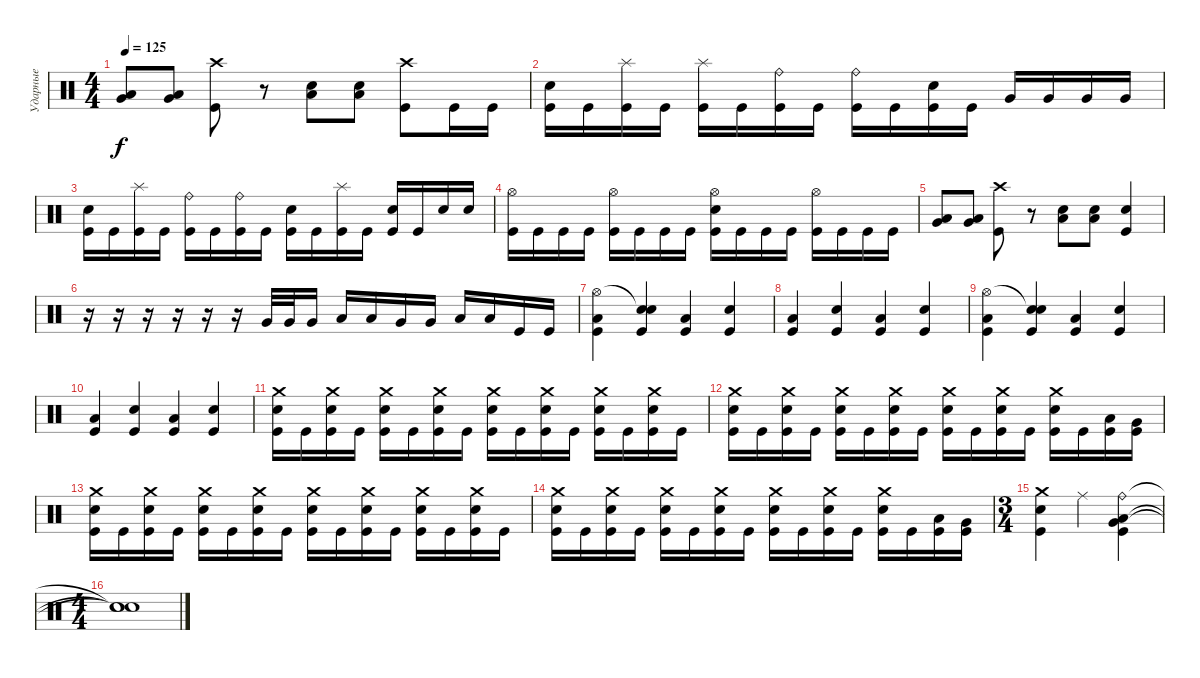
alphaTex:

\track ("Ударные" "Ударные") {instrument percussion}
\staff {score}
\articulation defaults
\ts (4 4)
\tempo 125
\clef neutral
\ks c
("Low Tom (hit)" "Very Low Tom (hit)").8{dy f} ("Low Tom (hit)" "Very Low Tom (hit)").8 ("Crash high (hit)" "Kick (hit)").8 r.8 ("Electric Snare (hit)" "Low Floor Tom (hit)").8 ("Electric Snare (hit)" "Low Floor Tom (hit)").8 ("Crash high (hit)" "Kick (hit)").8 "Kick (hit)".16 "Kick (hit)".16 |
("Electric Snare (hit)" "Kick (hit)").16 "Kick (hit)".16 ("Splash (hit)" "Kick (hit)").16 "Kick (hit)".16 ("Splash (hit)" "Kick (hit)").16 "Kick (hit)".16 ("Ride (bell)" "Kick (hit)").16 "Kick (hit)".16 ("Ride (bell)" "Kick (hit)").16 "Kick (hit)".16 ("Electric Snare (hit)" "Kick (hit)").16 "Kick (hit)".16 "Very Low Tom (hit)".16 "Very Low Tom (hit)".16 "Very Low Tom (hit)".16 "Very Low Tom (hit)".16 |
("Electric Snare (hit)" "Kick (hit)").16 "Kick (hit)".16 ("Splash (hit)" "Kick (hit)").16 "Kick (hit)".16 ("Ride (bell)" "Kick (hit)").16 "Kick (hit)".16 ("Ride (bell)" "Kick (hit)").16 "Kick (hit)".16 ("Electric Snare (hit)" "Kick (hit)").16 "Kick (hit)".16 ("Splash (hit)" "Kick (hit)").16 "Kick (hit)".16 ("Electric Snare (hit)" "Kick (hit)").16 "Kick (hit)".16 "Electric Snare (hit)".16 "Electric Snare (hit)".16 |
("Hi-Hat (open)" "Kick (hit)").16 "Kick (hit)".16 "Kick (hit)".16 "Kick (hit)".16 ("Hi-Hat (open)" "Kick (hit)").16 "Kick (hit)".16 "Kick (hit)".16 "Kick (hit)".16 ("Hi-Hat (open)" "Electric Snare (hit)" "Kick (hit)").16 "Kick (hit)".16 "Kick (hit)".16 "Kick (hit)".16 ("Hi-Hat (open)" "Kick (hit)").16 "Kick (hit)".16 "Kick (hit)".16 "Kick (hit)".16 |
("Low Tom (hit)" "Very Low Tom (hit)").8 ("Low Tom (hit)" "Very Low Tom (hit)").8 ("Crash high (hit)" "Kick (hit)").8 r.8 ("Electric Snare (hit)" "Low Floor Tom (hit)").8 ("Electric Snare (hit)" "Low Floor Tom (hit)").8 ("Electric Snare (hit)" "Kick (hit)").4 |
r.16 r.16 r.16 r.16 r.16 r.16 "Very Low Tom (hit)".32 "Very Low Tom (hit)".32 "Very Low Tom (hit)".16 "Low Tom (hit)".16 "Low Tom (hit)".16 "Very Low Tom (hit)".16 "Very Low Tom (hit)".16 "Low Floor Tom (hit)".16 "Low Floor Tom (hit)".16 "Kick (hit)".16 "Kick (hit)".16 |
("Hi-Hat (open)" "Low Floor Tom (hit)" "Kick (hit)").4 ("Snare (hit)"{t} "Electric Snare (hit)" "Kick (hit)").4 ("Low Floor Tom (hit)" "Kick (hit)").4 ("Electric Snare (hit)" "Kick (hit)").4 |
("Low Floor Tom (hit)" "Kick (hit)").4 ("Electric Snare (hit)" "Kick (hit)").4 ("Low Floor Tom (hit)" "Kick (hit)").4 ("Electric Snare (hit)" "Kick (hit)").4 |
("Hi-Hat (open)" "Low Floor Tom (hit)" "Kick (hit)").4 ("Snare (hit)"{t} "Electric Snare (hit)" "Kick (hit)").4 ("Low Floor Tom (hit)" "Kick (hit)").4 ("Electric Snare (hit)" "Kick (hit)").4 |
("Low Floor Tom (hit)" "Kick (hit)").4 ("Electric Snare (hit)" "Kick (hit)").4 ("Low Floor Tom (hit)" "Kick (hit)").4 ("Electric Snare (hit)" "Kick (hit)").4 |
("Crash medium (hit)" "Kick (hit)" "Electric Snare (hit)").16 "Kick (hit)".16 ("Crash medium (hit)" "Kick (hit)" "Electric Snare (hit)").16 "Kick (hit)".16 ("Crash medium (hit)" "Kick (hit)" "Electric Snare (hit)").16 "Kick (hit)".16 ("Crash medium (hit)" "Kick (hit)" "Electric Snare (hit)").16 "Kick (hit)".16 ("Crash medium (hit)" "Kick (hit)" "Electric Snare (hit)").16 "Kick (hit)".16 ("Crash medium (hit)" "Kick (hit)" "Electric Snare (hit)").16 "Kick (hit)".16 ("Crash medium (hit)" "Kick (hit)" "Electric Snare (hit)").16 "Kick (hit)".16 ("Crash medium (hit)" "Kick (hit)" "Electric Snare (hit)").16 "Kick (hit)".16 |
("Crash medium (hit)" "Kick (hit)" "Electric Snare (hit)").16 "Kick (hit)".16 ("Crash medium (hit)" "Kick (hit)" "Electric Snare (hit)").16 "Kick (hit)".16 ("Crash medium (hit)" "Kick (hit)" "Electric Snare (hit)").16 "Kick (hit)".16 ("Crash medium (hit)" "Kick (hit)" "Electric Snare (hit)").16 "Kick (hit)".16 ("Crash medium (hit)" "Kick (hit)" "Electric Snare (hit)").16 "Kick (hit)".16 ("Crash medium (hit)" "Kick (hit)" "Electric Snare (hit)").16 "Kick (hit)".16 ("Crash medium (hit)" "Kick (hit)" "Electric Snare (hit)").16 "Kick (hit)".16 ("Low Tom (hit)" "Kick (hit)").16 ("Very Low Tom (hit)" "Kick (hit)").16 |
("Crash medium (hit)" "Kick (hit)" "Electric Snare (hit)").16 "Kick (hit)".16 ("Crash medium (hit)" "Kick (hit)" "Electric Snare (hit)").16 "Kick (hit)".16 ("Crash medium (hit)" "Kick (hit)" "Electric Snare (hit)").16 "Kick (hit)".16 ("Crash medium (hit)" "Kick (hit)" "Electric Snare (hit)").16 "Kick (hit)".16 ("Crash medium (hit)" "Kick (hit)" "Electric Snare (hit)").16 "Kick (hit)".16 ("Crash medium (hit)" "Kick (hit)" "Electric Snare (hit)").16 "Kick (hit)".16 ("Crash medium (hit)" "Kick (hit)" "Electric Snare (hit)").16 "Kick (hit)".16 ("Crash medium (hit)" "Kick (hit)" "Electric Snare (hit)").16 "Kick (hit)".16 |
("Crash medium (hit)" "Kick (hit)" "Electric Snare (hit)").16 "Kick (hit)".16 ("Crash medium (hit)" "Kick (hit)" "Electric Snare (hit)").16 "Kick (hit)".16 ("Crash medium (hit)" "Kick (hit)" "Electric Snare (hit)").16 "Kick (hit)".16 ("Crash medium (hit)" "Kick (hit)" "Electric Snare (hit)").16 "Kick (hit)".16 ("Crash medium (hit)" "Kick (hit)" "Electric Snare (hit)").16 "Kick (hit)".16 ("Crash medium (hit)" "Kick (hit)" "Electric Snare (hit)").16 "Kick (hit)".16 ("Crash medium (hit)" "Kick (hit)" "Electric Snare (hit)").16 "Kick (hit)".16 ("Low Tom (hit)" "Kick (hit)").16 ("Very Low Tom (hit)" "Kick (hit)").16 |
\ts (3 4)
("Crash medium (hit)" "Kick (hit)" "Electric Snare (hit)").4 "Ride (middle)".4 ("Ride (bell)" "Low Floor Tom (hit)" "Very Low Tom (hit)" "Kick (hit)").4 |
\ts (4 4)
("Snare (hit)"{t} "Snare (hit)"{t} "Snare (hit)"{t}).1
